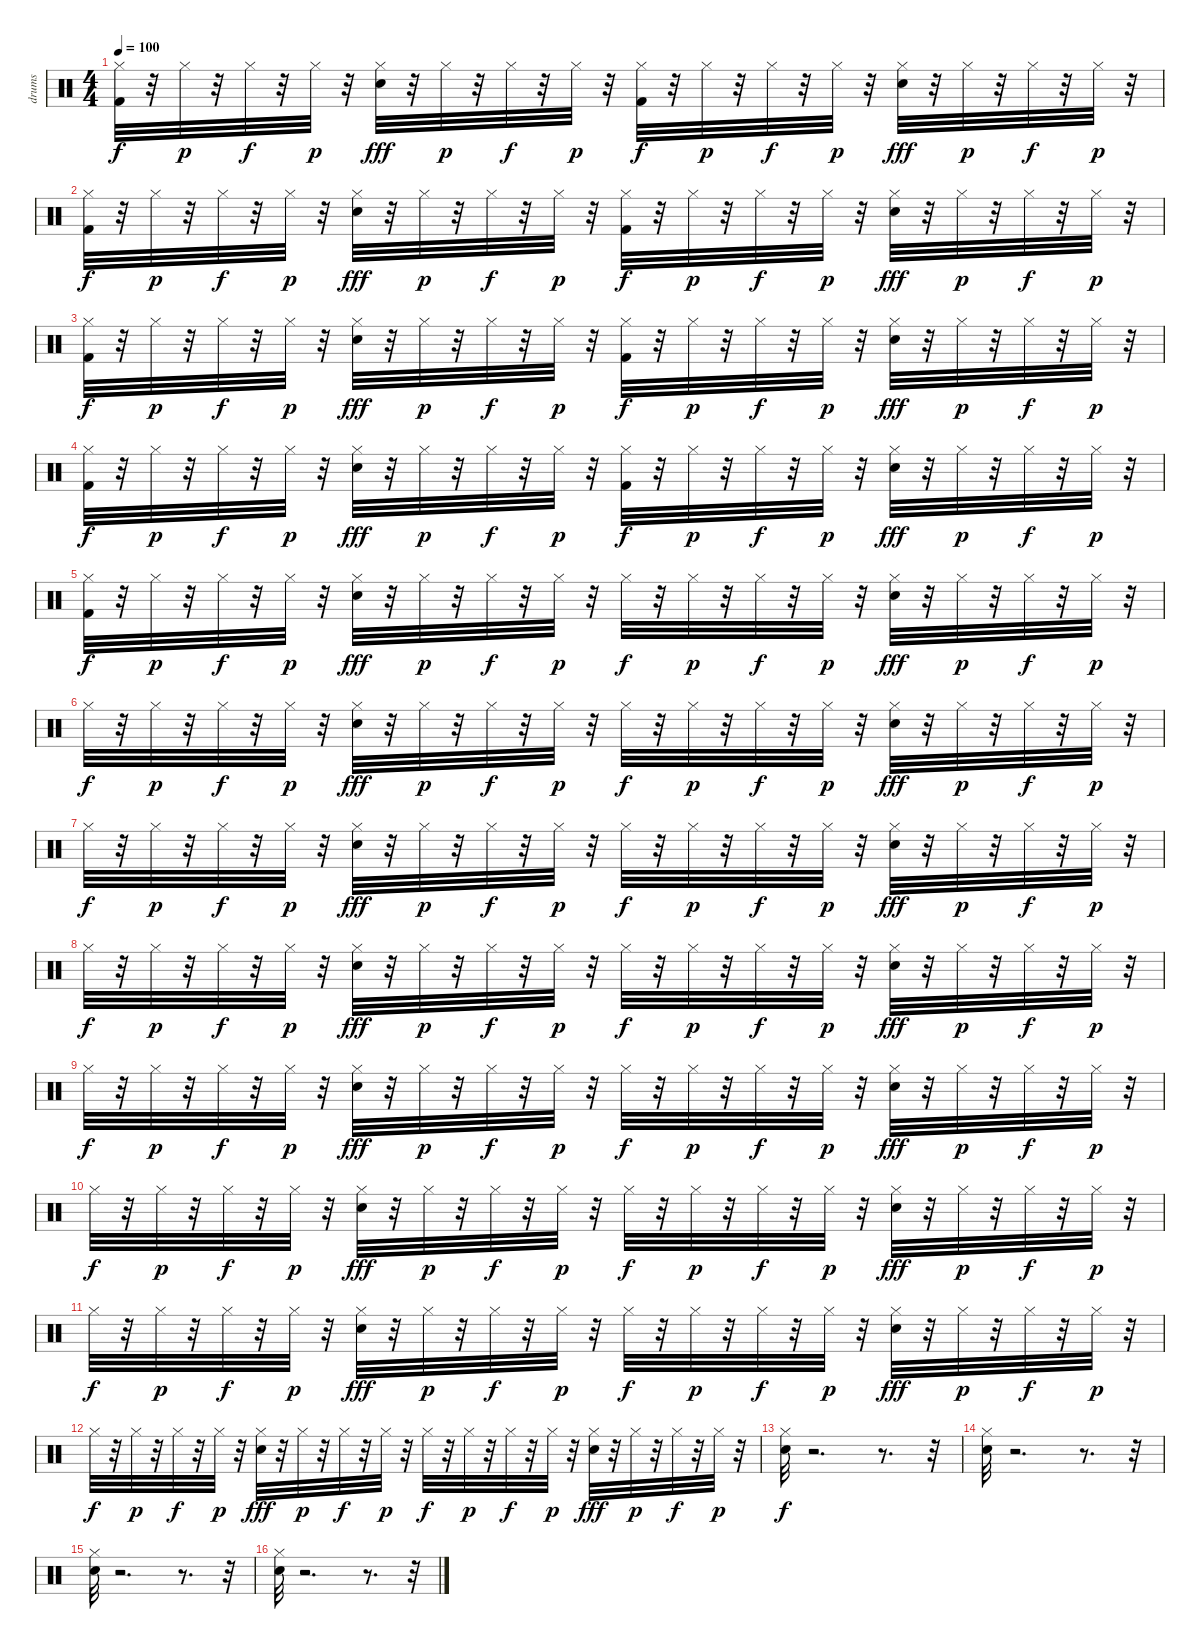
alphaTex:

\track ("drums" "drums") {instrument percussion}
\staff {score}
\articulation defaults
\ts (4 4)
\tempo 100
\clef neutral
\ks c
("Hi-Hat (closed)" "Kick (hit) 2").32{dy f} r.32 "Hi-Hat (closed)".32{dy p} r.32 "Hi-Hat (closed)".32{dy f} r.32 "Hi-Hat (closed)".32{dy p} r.32 ("Hi-Hat (closed)" "Electric Snare (hit)").32{dy fff} r.32 "Hi-Hat (closed)".32{dy p} r.32 "Hi-Hat (closed)".32{dy f} r.32 "Hi-Hat (closed)".32{dy p} r.32 ("Hi-Hat (closed)" "Kick (hit) 2").32{dy f} r.32 "Hi-Hat (closed)".32{dy p} r.32 "Hi-Hat (closed)".32{dy f} r.32 "Hi-Hat (closed)".32{dy p} r.32 ("Hi-Hat (closed)" "Electric Snare (hit)").32{dy fff} r.32 "Hi-Hat (closed)".32{dy p} r.32 "Hi-Hat (closed)".32{dy f} r.32 "Hi-Hat (closed)".32{dy p} r.32 |
("Hi-Hat (closed)" "Kick (hit) 2").32{dy f} r.32 "Hi-Hat (closed)".32{dy p} r.32 "Hi-Hat (closed)".32{dy f} r.32 "Hi-Hat (closed)".32{dy p} r.32 ("Hi-Hat (closed)" "Electric Snare (hit)").32{dy fff} r.32 "Hi-Hat (closed)".32{dy p} r.32 "Hi-Hat (closed)".32{dy f} r.32 "Hi-Hat (closed)".32{dy p} r.32 ("Hi-Hat (closed)" "Kick (hit) 2").32{dy f} r.32 "Hi-Hat (closed)".32{dy p} r.32 "Hi-Hat (closed)".32{dy f} r.32 "Hi-Hat (closed)".32{dy p} r.32 ("Hi-Hat (closed)" "Electric Snare (hit)").32{dy fff} r.32 "Hi-Hat (closed)".32{dy p} r.32 "Hi-Hat (closed)".32{dy f} r.32 "Hi-Hat (closed)".32{dy p} r.32 |
("Hi-Hat (closed)" "Kick (hit) 2").32{dy f} r.32 "Hi-Hat (closed)".32{dy p} r.32 "Hi-Hat (closed)".32{dy f} r.32 "Hi-Hat (closed)".32{dy p} r.32 ("Hi-Hat (closed)" "Electric Snare (hit)").32{dy fff} r.32 "Hi-Hat (closed)".32{dy p} r.32 "Hi-Hat (closed)".32{dy f} r.32 "Hi-Hat (closed)".32{dy p} r.32 ("Hi-Hat (closed)" "Kick (hit) 2").32{dy f} r.32 "Hi-Hat (closed)".32{dy p} r.32 "Hi-Hat (closed)".32{dy f} r.32 "Hi-Hat (closed)".32{dy p} r.32 ("Hi-Hat (closed)" "Electric Snare (hit)").32{dy fff} r.32 "Hi-Hat (closed)".32{dy p} r.32 "Hi-Hat (closed)".32{dy f} r.32 "Hi-Hat (closed)".32{dy p} r.32 |
("Hi-Hat (closed)" "Kick (hit) 2").32{dy f} r.32 "Hi-Hat (closed)".32{dy p} r.32 "Hi-Hat (closed)".32{dy f} r.32 "Hi-Hat (closed)".32{dy p} r.32 ("Hi-Hat (closed)" "Electric Snare (hit)").32{dy fff} r.32 "Hi-Hat (closed)".32{dy p} r.32 "Hi-Hat (closed)".32{dy f} r.32 "Hi-Hat (closed)".32{dy p} r.32 ("Hi-Hat (closed)" "Kick (hit) 2").32{dy f} r.32 "Hi-Hat (closed)".32{dy p} r.32 "Hi-Hat (closed)".32{dy f} r.32 "Hi-Hat (closed)".32{dy p} r.32 ("Hi-Hat (closed)" "Electric Snare (hit)").32{dy fff} r.32 "Hi-Hat (closed)".32{dy p} r.32 "Hi-Hat (closed)".32{dy f} r.32 "Hi-Hat (closed)".32{dy p} r.32 |
("Hi-Hat (closed)" "Kick (hit) 2").32{dy f} r.32 "Hi-Hat (closed)".32{dy p} r.32 "Hi-Hat (closed)".32{dy f} r.32 "Hi-Hat (closed)".32{dy p} r.32 ("Hi-Hat (closed)" "Electric Snare (hit)").32{dy fff} r.32 "Hi-Hat (closed)".32{dy p} r.32 "Hi-Hat (closed)".32{dy f} r.32 "Hi-Hat (closed)".32{dy p} r.32 "Hi-Hat (closed)".32{dy f} r.32 "Hi-Hat (closed)".32{dy p} r.32 "Hi-Hat (closed)".32{dy f} r.32 "Hi-Hat (closed)".32{dy p} r.32 ("Hi-Hat (closed)" "Electric Snare (hit)").32{dy fff} r.32 "Hi-Hat (closed)".32{dy p} r.32 "Hi-Hat (closed)".32{dy f} r.32 "Hi-Hat (closed)".32{dy p} r.32 |
"Hi-Hat (closed)".32{dy f} r.32 "Hi-Hat (closed)".32{dy p} r.32 "Hi-Hat (closed)".32{dy f} r.32 "Hi-Hat (closed)".32{dy p} r.32 ("Hi-Hat (closed)" "Electric Snare (hit)").32{dy fff} r.32 "Hi-Hat (closed)".32{dy p} r.32 "Hi-Hat (closed)".32{dy f} r.32 "Hi-Hat (closed)".32{dy p} r.32 "Hi-Hat (closed)".32{dy f} r.32 "Hi-Hat (closed)".32{dy p} r.32 "Hi-Hat (closed)".32{dy f} r.32 "Hi-Hat (closed)".32{dy p} r.32 ("Hi-Hat (closed)" "Electric Snare (hit)").32{dy fff} r.32 "Hi-Hat (closed)".32{dy p} r.32 "Hi-Hat (closed)".32{dy f} r.32 "Hi-Hat (closed)".32{dy p} r.32 |
"Hi-Hat (closed)".32{dy f} r.32 "Hi-Hat (closed)".32{dy p} r.32 "Hi-Hat (closed)".32{dy f} r.32 "Hi-Hat (closed)".32{dy p} r.32 ("Hi-Hat (closed)" "Electric Snare (hit)").32{dy fff} r.32 "Hi-Hat (closed)".32{dy p} r.32 "Hi-Hat (closed)".32{dy f} r.32 "Hi-Hat (closed)".32{dy p} r.32 "Hi-Hat (closed)".32{dy f} r.32 "Hi-Hat (closed)".32{dy p} r.32 "Hi-Hat (closed)".32{dy f} r.32 "Hi-Hat (closed)".32{dy p} r.32 ("Hi-Hat (closed)" "Electric Snare (hit)").32{dy fff} r.32 "Hi-Hat (closed)".32{dy p} r.32 "Hi-Hat (closed)".32{dy f} r.32 "Hi-Hat (closed)".32{dy p} r.32 |
"Hi-Hat (closed)".32{dy f} r.32 "Hi-Hat (closed)".32{dy p} r.32 "Hi-Hat (closed)".32{dy f} r.32 "Hi-Hat (closed)".32{dy p} r.32 ("Hi-Hat (closed)" "Electric Snare (hit)").32{dy fff} r.32 "Hi-Hat (closed)".32{dy p} r.32 "Hi-Hat (closed)".32{dy f} r.32 "Hi-Hat (closed)".32{dy p} r.32 "Hi-Hat (closed)".32{dy f} r.32 "Hi-Hat (closed)".32{dy p} r.32 "Hi-Hat (closed)".32{dy f} r.32 "Hi-Hat (closed)".32{dy p} r.32 ("Hi-Hat (closed)" "Electric Snare (hit)").32{dy fff} r.32 "Hi-Hat (closed)".32{dy p} r.32 "Hi-Hat (closed)".32{dy f} r.32 "Hi-Hat (closed)".32{dy p} r.32 |
"Hi-Hat (closed)".32{dy f} r.32 "Hi-Hat (closed)".32{dy p} r.32 "Hi-Hat (closed)".32{dy f} r.32 "Hi-Hat (closed)".32{dy p} r.32 ("Hi-Hat (closed)" "Electric Snare (hit)").32{dy fff} r.32 "Hi-Hat (closed)".32{dy p} r.32 "Hi-Hat (closed)".32{dy f} r.32 "Hi-Hat (closed)".32{dy p} r.32 "Hi-Hat (closed)".32{dy f} r.32 "Hi-Hat (closed)".32{dy p} r.32 "Hi-Hat (closed)".32{dy f} r.32 "Hi-Hat (closed)".32{dy p} r.32 ("Hi-Hat (closed)" "Electric Snare (hit)").32{dy fff} r.32 "Hi-Hat (closed)".32{dy p} r.32 "Hi-Hat (closed)".32{dy f} r.32 "Hi-Hat (closed)".32{dy p} r.32 |
"Hi-Hat (closed)".32{dy f} r.32 "Hi-Hat (closed)".32{dy p} r.32 "Hi-Hat (closed)".32{dy f} r.32 "Hi-Hat (closed)".32{dy p} r.32 ("Hi-Hat (closed)" "Electric Snare (hit)").32{dy fff} r.32 "Hi-Hat (closed)".32{dy p} r.32 "Hi-Hat (closed)".32{dy f} r.32 "Hi-Hat (closed)".32{dy p} r.32 "Hi-Hat (closed)".32{dy f} r.32 "Hi-Hat (closed)".32{dy p} r.32 "Hi-Hat (closed)".32{dy f} r.32 "Hi-Hat (closed)".32{dy p} r.32 ("Hi-Hat (closed)" "Electric Snare (hit)").32{dy fff} r.32 "Hi-Hat (closed)".32{dy p} r.32 "Hi-Hat (closed)".32{dy f} r.32 "Hi-Hat (closed)".32{dy p} r.32 |
"Hi-Hat (closed)".32{dy f} r.32 "Hi-Hat (closed)".32{dy p} r.32 "Hi-Hat (closed)".32{dy f} r.32 "Hi-Hat (closed)".32{dy p} r.32 ("Hi-Hat (closed)" "Electric Snare (hit)").32{dy fff} r.32 "Hi-Hat (closed)".32{dy p} r.32 "Hi-Hat (closed)".32{dy f} r.32 "Hi-Hat (closed)".32{dy p} r.32 "Hi-Hat (closed)".32{dy f} r.32 "Hi-Hat (closed)".32{dy p} r.32 "Hi-Hat (closed)".32{dy f} r.32 "Hi-Hat (closed)".32{dy p} r.32 ("Hi-Hat (closed)" "Electric Snare (hit)").32{dy fff} r.32 "Hi-Hat (closed)".32{dy p} r.32 "Hi-Hat (closed)".32{dy f} r.32 "Hi-Hat (closed)".32{dy p} r.32 |
"Hi-Hat (closed)".32{dy f} r.32 "Hi-Hat (closed)".32{dy p} r.32 "Hi-Hat (closed)".32{dy f} r.32 "Hi-Hat (closed)".32{dy p} r.32 ("Hi-Hat (closed)" "Electric Snare (hit)").32{dy fff} r.32 "Hi-Hat (closed)".32{dy p} r.32 "Hi-Hat (closed)".32{dy f} r.32 "Hi-Hat (closed)".32{dy p} r.32 "Hi-Hat (closed)".32{dy f} r.32 "Hi-Hat (closed)".32{dy p} r.32 "Hi-Hat (closed)".32{dy f} r.32 "Hi-Hat (closed)".32{dy p} r.32 ("Hi-Hat (closed)" "Electric Snare (hit)").32{dy fff} r.32 "Hi-Hat (closed)".32{dy p} r.32 "Hi-Hat (closed)".32{dy f} r.32 "Hi-Hat (closed)".32{dy p} r.32 |
("Electric Snare (hit)" "Hi-Hat (closed)").32{dy f} r.2{d} r.8{d} r.32 |
("Electric Snare (hit)" "Hi-Hat (closed)").32 r.2{d} r.8{d} r.32 |
("Electric Snare (hit)" "Hi-Hat (closed)").32 r.2{d} r.8{d} r.32 |
("Electric Snare (hit)" "Hi-Hat (closed)").32 r.2{d} r.8{d} r.32
